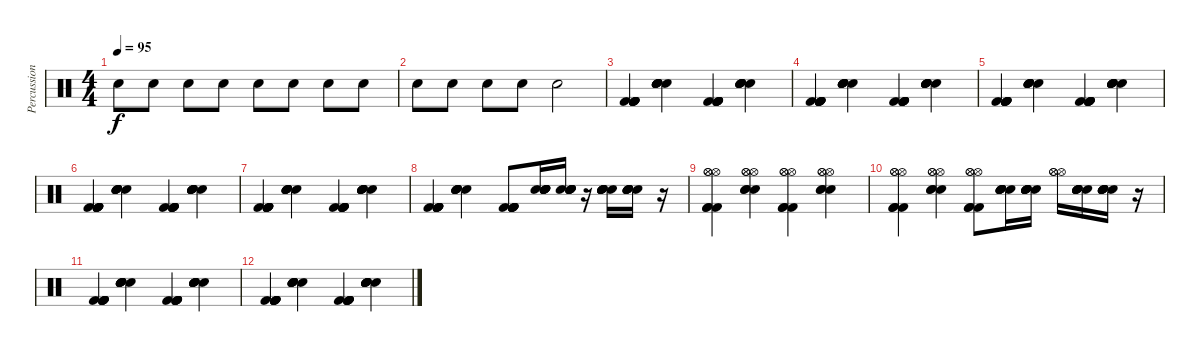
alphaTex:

\track ("Percussion" "Percussion") {instrument percussion}
\staff {score}
\articulation defaults
\ts (4 4)
\tempo 95
\clef neutral
\ks c "Electric Snare (hit)".8{dy f} "Electric Snare (hit)".8 "Electric Snare (hit)".8 "Electric Snare (hit)".8 "Electric Snare (hit)".8 "Electric Snare (hit)".8 "Electric Snare (hit)".8 "Electric Snare (hit)".8
|
"Electric Snare (hit)".8 "Electric Snare (hit)".8 "Electric Snare (hit)".8 "Electric Snare (hit)".8 "Electric Snare (hit)".2 |
("Kick (hit) 2" "Kick (hit) 2" "Kick (hit) 2" "Kick (hit) 2" "Kick (hit) 2" "Kick (hit) 2").4 ("Electric Snare (hit)" "Electric Snare (hit)" "Electric Snare (hit)" "Electric Snare (hit)" "Electric Snare (hit)" "Electric Snare (hit)").4 ("Kick (hit) 2" "Kick (hit) 2" "Kick (hit) 2" "Kick (hit) 2" "Kick (hit) 2" "Kick (hit) 2").4 ("Electric Snare (hit)" "Electric Snare (hit)" "Electric Snare (hit)" "Electric Snare (hit)" "Electric Snare (hit)" "Electric Snare (hit)").4 |
("Kick (hit) 2" "Kick (hit) 2" "Kick (hit) 2" "Kick (hit) 2" "Kick (hit) 2" "Kick (hit) 2").4 ("Electric Snare (hit)" "Electric Snare (hit)" "Electric Snare (hit)" "Electric Snare (hit)" "Electric Snare (hit)" "Electric Snare (hit)").4 ("Kick (hit) 2" "Kick (hit) 2" "Kick (hit) 2" "Kick (hit) 2" "Kick (hit) 2" "Kick (hit) 2").4 ("Electric Snare (hit)" "Electric Snare (hit)" "Electric Snare (hit)" "Electric Snare (hit)" "Electric Snare (hit)" "Electric Snare (hit)").4 |
("Kick (hit) 2" "Kick (hit) 2" "Kick (hit) 2" "Kick (hit) 2" "Kick (hit) 2" "Kick (hit) 2").4 ("Electric Snare (hit)" "Electric Snare (hit)" "Electric Snare (hit)" "Electric Snare (hit)" "Electric Snare (hit)" "Electric Snare (hit)").4 ("Kick (hit) 2" "Kick (hit) 2" "Kick (hit) 2" "Kick (hit) 2" "Kick (hit) 2" "Kick (hit) 2").4 ("Electric Snare (hit)" "Electric Snare (hit)" "Electric Snare (hit)" "Electric Snare (hit)" "Electric Snare (hit)" "Electric Snare (hit)").4 |
("Kick (hit) 2" "Kick (hit) 2" "Kick (hit) 2" "Kick (hit) 2" "Kick (hit) 2" "Kick (hit) 2").4 ("Electric Snare (hit)" "Electric Snare (hit)" "Electric Snare (hit)" "Electric Snare (hit)" "Electric Snare (hit)" "Electric Snare (hit)").4 ("Kick (hit) 2" "Kick (hit) 2" "Kick (hit) 2" "Kick (hit) 2" "Kick (hit) 2" "Kick (hit) 2").4 ("Electric Snare (hit)" "Electric Snare (hit)" "Electric Snare (hit)" "Electric Snare (hit)" "Electric Snare (hit)" "Electric Snare (hit)").4 |
("Kick (hit) 2" "Kick (hit) 2" "Kick (hit) 2" "Kick (hit) 2" "Kick (hit) 2" "Kick (hit) 2").4 ("Electric Snare (hit)" "Electric Snare (hit)" "Electric Snare (hit)" "Electric Snare (hit)" "Electric Snare (hit)" "Electric Snare (hit)").4 ("Kick (hit) 2" "Kick (hit) 2" "Kick (hit) 2" "Kick (hit) 2" "Kick (hit) 2" "Kick (hit) 2").4 ("Electric Snare (hit)" "Electric Snare (hit)" "Electric Snare (hit)" "Electric Snare (hit)" "Electric Snare (hit)" "Electric Snare (hit)").4 |
("Kick (hit) 2" "Kick (hit) 2" "Kick (hit) 2" "Kick (hit) 2" "Kick (hit) 2" "Kick (hit) 2").4 ("Electric Snare (hit)" "Electric Snare (hit)" "Electric Snare (hit)" "Electric Snare (hit)" "Electric Snare (hit)" "Electric Snare (hit)").4 ("Kick (hit) 2" "Kick (hit) 2" "Kick (hit) 2" "Kick (hit) 2" "Kick (hit) 2" "Kick (hit) 2").8 ("Electric Snare (hit)" "Electric Snare (hit)" "Electric Snare (hit)" "Electric Snare (hit)" "Electric Snare (hit)" "Electric Snare (hit)").16 ("Electric Snare (hit)" "Electric Snare (hit)" "Electric Snare (hit)" "Electric Snare (hit)" "Electric Snare (hit)" "Electric Snare (hit)").16 r.16 ("Electric Snare (hit)" "Electric Snare (hit)" "Electric Snare (hit)" "Electric Snare (hit)" "Electric Snare (hit)" "Electric Snare (hit)").16 ("Electric Snare (hit)" "Electric Snare (hit)" "Electric Snare (hit)" "Electric Snare (hit)" "Electric Snare (hit)" "Electric Snare (hit)").16 r.16 |
("Hi-Hat (open)" "Kick (hit) 2" "Hi-Hat (open)" "Kick (hit) 2" "Hi-Hat (open)" "Kick (hit) 2").4 ("Hi-Hat (open)" "Electric Snare (hit)" "Hi-Hat (open)" "Electric Snare (hit)" "Hi-Hat (open)" "Electric Snare (hit)").4 ("Hi-Hat (open)" "Kick (hit) 2" "Hi-Hat (open)" "Kick (hit) 2" "Hi-Hat (open)" "Kick (hit) 2").4 ("Hi-Hat (open)" "Electric Snare (hit)" "Hi-Hat (open)" "Electric Snare (hit)" "Hi-Hat (open)" "Electric Snare (hit)").4 |
("Hi-Hat (open)" "Kick (hit) 2" "Hi-Hat (open)" "Kick (hit) 2" "Hi-Hat (open)" "Kick (hit) 2").4 ("Hi-Hat (open)" "Electric Snare (hit)" "Hi-Hat (open)" "Electric Snare (hit)" "Hi-Hat (open)" "Electric Snare (hit)").4 ("Hi-Hat (open)" "Kick (hit) 2" "Hi-Hat (open)" "Kick (hit) 2" "Hi-Hat (open)" "Kick (hit) 2").8 ("Electric Snare (hit)" "Electric Snare (hit)" "Electric Snare (hit)" "Electric Snare (hit)" "Electric Snare (hit)" "Electric Snare (hit)").16 ("Electric Snare (hit)" "Electric Snare (hit)" "Electric Snare (hit)" "Electric Snare (hit)" "Electric Snare (hit)" "Electric Snare (hit)").16 ("Hi-Hat (open)" "Hi-Hat (open)" "Hi-Hat (open)").16 ("Electric Snare (hit)" "Electric Snare (hit)" "Electric Snare (hit)" "Electric Snare (hit)" "Electric Snare (hit)" "Electric Snare (hit)").16 ("Electric Snare (hit)" "Electric Snare (hit)" "Electric Snare (hit)" "Electric Snare (hit)" "Electric Snare (hit)" "Electric Snare (hit)").16 r.16 |
("Kick (hit) 2" "Kick (hit) 2" "Kick (hit) 2" "Kick (hit) 2" "Kick (hit) 2" "Kick (hit) 2").4 ("Electric Snare (hit)" "Electric Snare (hit)" "Electric Snare (hit)" "Electric Snare (hit)" "Electric Snare (hit)" "Electric Snare (hit)").4 ("Kick (hit) 2" "Kick (hit) 2" "Kick (hit) 2" "Kick (hit) 2" "Kick (hit) 2" "Kick (hit) 2").4 ("Electric Snare (hit)" "Electric Snare (hit)" "Electric Snare (hit)" "Electric Snare (hit)" "Electric Snare (hit)" "Electric Snare (hit)").4 |
("Kick (hit) 2" "Kick (hit) 2" "Kick (hit) 2" "Kick (hit) 2" "Kick (hit) 2" "Kick (hit) 2").4 ("Electric Snare (hit)" "Electric Snare (hit)" "Electric Snare (hit)" "Electric Snare (hit)" "Electric Snare (hit)" "Electric Snare (hit)").4 ("Kick (hit) 2" "Kick (hit) 2" "Kick (hit) 2" "Kick (hit) 2" "Kick (hit) 2" "Kick (hit) 2").4 ("Electric Snare (hit)" "Electric Snare (hit)" "Electric Snare (hit)" "Electric Snare (hit)" "Electric Snare (hit)" "Electric Snare (hit)").4
